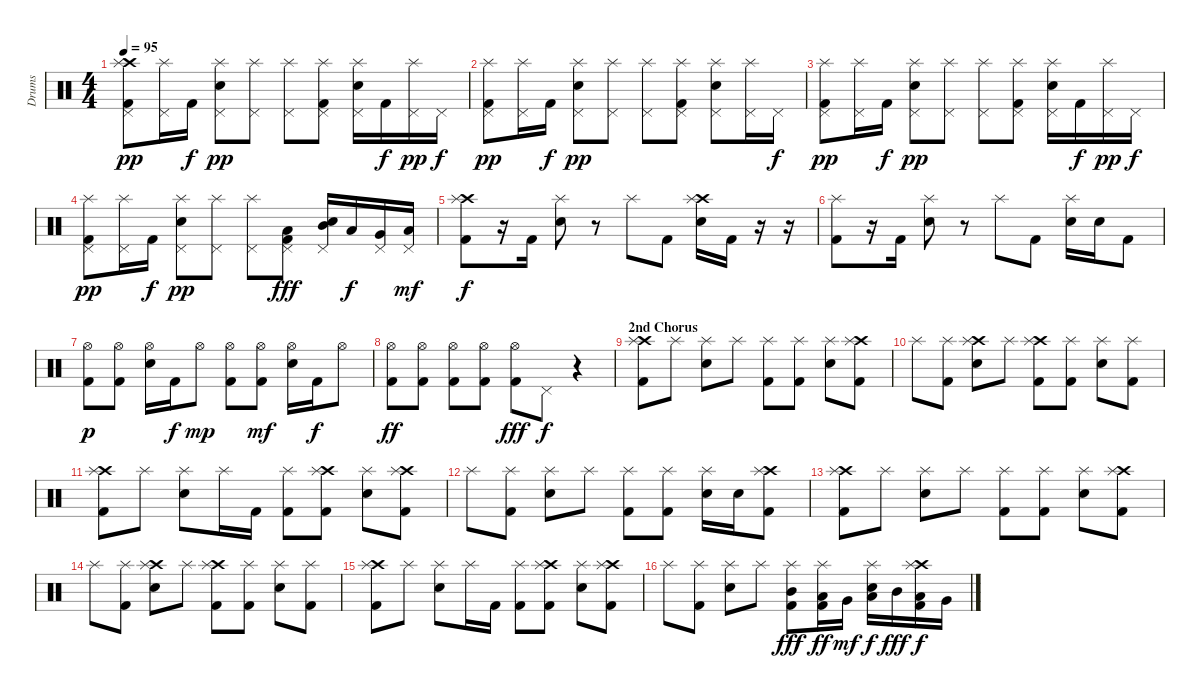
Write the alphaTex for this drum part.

\track ("Drums" "Drums") {instrument percussion}
\staff {score}
\articulation defaults
\ts (4 4)
\tempo 95
\clef neutral
\ks c
("Crash high (hit)" "Pedal Hi-Hat (hit)" "Splash (hit)" "Kick (hit) 2").8{dy pp} ("Pedal Hi-Hat (hit)" "Splash (hit)").16 "Kick (hit) 2".16{dy f} ("Pedal Hi-Hat (hit)" "Electric Snare (hit)" "Splash (hit)").8{dy pp} ("Pedal Hi-Hat (hit)" "Splash (hit)").8 ("Pedal Hi-Hat (hit)" "Splash (hit)").8 ("Pedal Hi-Hat (hit)" "Splash (hit)" "Kick (hit) 2").8 ("Pedal Hi-Hat (hit)" "Electric Snare (hit)" "Splash (hit)").16 "Kick (hit) 2".16{dy f} ("Pedal Hi-Hat (hit)" "Splash (hit)").16{dy pp} "Pedal Hi-Hat (hit)".16{dy f} |
("Pedal Hi-Hat (hit)" "Splash (hit)" "Kick (hit) 2").8{dy pp} ("Pedal Hi-Hat (hit)" "Splash (hit)").16 "Kick (hit) 2".16{dy f} ("Pedal Hi-Hat (hit)" "Electric Snare (hit)" "Splash (hit)").8{dy pp} ("Pedal Hi-Hat (hit)" "Splash (hit)").8 ("Pedal Hi-Hat (hit)" "Splash (hit)").8 ("Pedal Hi-Hat (hit)" "Splash (hit)" "Kick (hit) 2").8 ("Pedal Hi-Hat (hit)" "Electric Snare (hit)" "Splash (hit)").8 ("Pedal Hi-Hat (hit)" "Splash (hit)").16 "Pedal Hi-Hat (hit)".16{dy f} |
("Pedal Hi-Hat (hit)" "Splash (hit)" "Kick (hit) 2").8{dy pp} ("Pedal Hi-Hat (hit)" "Splash (hit)").16 "Kick (hit) 2".16{dy f} ("Pedal Hi-Hat (hit)" "Electric Snare (hit)" "Splash (hit)").8{dy pp} ("Pedal Hi-Hat (hit)" "Splash (hit)").8 ("Pedal Hi-Hat (hit)" "Splash (hit)").8 ("Pedal Hi-Hat (hit)" "Splash (hit)" "Kick (hit) 2").8 ("Pedal Hi-Hat (hit)" "Electric Snare (hit)" "Splash (hit)").16 "Kick (hit) 2".16{dy f} ("Pedal Hi-Hat (hit)" "Splash (hit)").16{dy pp} "Pedal Hi-Hat (hit)".16{dy f} |
("Pedal Hi-Hat (hit)" "Splash (hit)" "Kick (hit) 2").8{dy pp} ("Pedal Hi-Hat (hit)" "Splash (hit)").16 "Kick (hit) 2".16{dy f} ("Pedal Hi-Hat (hit)" "Electric Snare (hit)" "Splash (hit)").8{dy pp} ("Pedal Hi-Hat (hit)" "Splash (hit)").8 ("Pedal Hi-Hat (hit)" "Splash (hit)").8 ("Pedal Hi-Hat (hit)" "Low Floor Tom (hit)" "Kick (hit) 2").8{dy fff} ("Pedal Hi-Hat (hit)" "Electric Snare (hit)" "Mid Tom (hit)").16 "Low Tom (hit)".16{dy f} ("Pedal Hi-Hat (hit)" "Very Low Tom (hit)").16 ("Pedal Hi-Hat (hit)" "Low Floor Tom (hit)").16{dy mf} |
("Crash high (hit)" "Splash (hit)" "Kick (hit) 2").8{dy f} r.16 "Kick (hit) 2".16 ("Splash (hit)" "Electric Snare (hit)").8 r.8 "Splash (hit)".8 "Kick (hit) 2".8 ("Crash high (hit)" "Splash (hit)" "Electric Snare (hit)").16 "Kick (hit) 2".16 r.16 r.16 |
("Splash (hit)" "Kick (hit) 2").8 r.16 "Kick (hit) 2".16 ("Splash (hit)" "Electric Snare (hit)").8 r.8 "Splash (hit)".8 "Kick (hit) 2".8 ("Splash (hit)" "Electric Snare (hit)").16 "Electric Snare (hit)".16 "Kick (hit) 2".8 |
("Hi-Hat (open)" "Kick (hit) 2").8{dy p} ("Hi-Hat (open)" "Kick (hit) 2").8 ("Hi-Hat (open)" "Electric Snare (hit)").16 "Kick (hit) 2".16{dy f} "Hi-Hat (open)".8{dy mp} ("Hi-Hat (open)" "Kick (hit) 2").8 ("Hi-Hat (open)" "Kick (hit) 2").8{dy mf} ("Hi-Hat (open)" "Electric Snare (hit)").16 "Kick (hit) 2".16{dy f} "Hi-Hat (open)".8 |
("Hi-Hat (open)" "Kick (hit) 2").8{dy ff} ("Hi-Hat (open)" "Kick (hit) 2").8 ("Hi-Hat (open)" "Kick (hit) 2").8 ("Hi-Hat (open)" "Kick (hit) 2").8 ("Hi-Hat (open)" "Kick (hit) 2").8{dy fff} "Pedal Hi-Hat (hit)".8{dy f} r.4 |
\section ("" "2nd Chorus")
("Crash high (hit)" "Splash (hit)" "Kick (hit) 2").8 "Splash (hit)".8 ("Splash (hit)" "Electric Snare (hit)").8 "Splash (hit)".8 ("Splash (hit)" "Kick (hit) 2").8 ("Splash (hit)" "Kick (hit) 2").8 ("Splash (hit)" "Electric Snare (hit)").8 ("Crash high (hit)" "Splash (hit)" "Kick (hit) 2").8 |
"Splash (hit)".8 ("Splash (hit)" "Kick (hit) 2").8 ("Crash high (hit)" "Splash (hit)" "Electric Snare (hit)").8 "Splash (hit)".8 ("Crash high (hit)" "Splash (hit)" "Kick (hit) 2").8 ("Splash (hit)" "Kick (hit) 2").8 ("Splash (hit)" "Electric Snare (hit)").8 ("Splash (hit)" "Kick (hit) 2").8 |
("Crash high (hit)" "Splash (hit)" "Kick (hit) 2").8 "Splash (hit)".8 ("Splash (hit)" "Electric Snare (hit)").8 "Splash (hit)".16 "Kick (hit) 2".16 ("Splash (hit)" "Kick (hit) 2").8 ("Crash high (hit)" "Splash (hit)" "Kick (hit) 2").8 ("Splash (hit)" "Electric Snare (hit)").8 ("Crash high (hit)" "Splash (hit)" "Kick (hit) 2").8 |
"Splash (hit)".8 ("Splash (hit)" "Kick (hit) 2").8 ("Splash (hit)" "Electric Snare (hit)").8 "Splash (hit)".8 ("Splash (hit)" "Kick (hit) 2").8 ("Splash (hit)" "Kick (hit) 2").8 ("Splash (hit)" "Electric Snare (hit)").16 "Electric Snare (hit)".16 ("Crash high (hit)" "Splash (hit)" "Kick (hit) 2").8 |
("Crash high (hit)" "Splash (hit)" "Kick (hit) 2").8 "Splash (hit)".8 ("Splash (hit)" "Electric Snare (hit)").8 "Splash (hit)".8 ("Splash (hit)" "Kick (hit) 2").8 ("Splash (hit)" "Kick (hit) 2").8 ("Splash (hit)" "Electric Snare (hit)").8 ("Crash high (hit)" "Splash (hit)" "Kick (hit) 2").8 |
"Splash (hit)".8 ("Splash (hit)" "Kick (hit) 2").8 ("Crash high (hit)" "Splash (hit)" "Electric Snare (hit)").8 "Splash (hit)".8 ("Crash high (hit)" "Splash (hit)" "Kick (hit) 2").8 ("Splash (hit)" "Kick (hit) 2").8 ("Splash (hit)" "Electric Snare (hit)").8 ("Splash (hit)" "Kick (hit) 2").8 |
("Crash high (hit)" "Splash (hit)" "Kick (hit) 2").8 "Splash (hit)".8 ("Splash (hit)" "Electric Snare (hit)").8 "Splash (hit)".16 "Kick (hit) 2".16 ("Splash (hit)" "Kick (hit) 2").8 ("Crash high (hit)" "Splash (hit)" "Kick (hit) 2").8 ("Splash (hit)" "Electric Snare (hit)").8 ("Crash high (hit)" "Splash (hit)" "Kick (hit) 2").8 |
"Splash (hit)".8 ("Splash (hit)" "Kick (hit) 2").8 ("Splash (hit)" "Electric Snare (hit)").8 "Splash (hit)".8 ("Splash (hit)" "Mid Tom (hit)" "Kick (hit) 2").8{dy fff} ("Splash (hit)" "Low Tom (hit)" "Kick (hit) 2").16{dy ff} "Very Low Tom (hit)".16{dy mf} ("Splash (hit)" "Electric Snare (hit)" "Low Floor Tom (hit)").16{dy f} "Mid Tom (hit)".16{dy fff} ("Crash high (hit)" "Splash (hit)" "Low Tom (hit)" "Kick (hit) 2").16{dy f} "Very Low Tom (hit)".16
